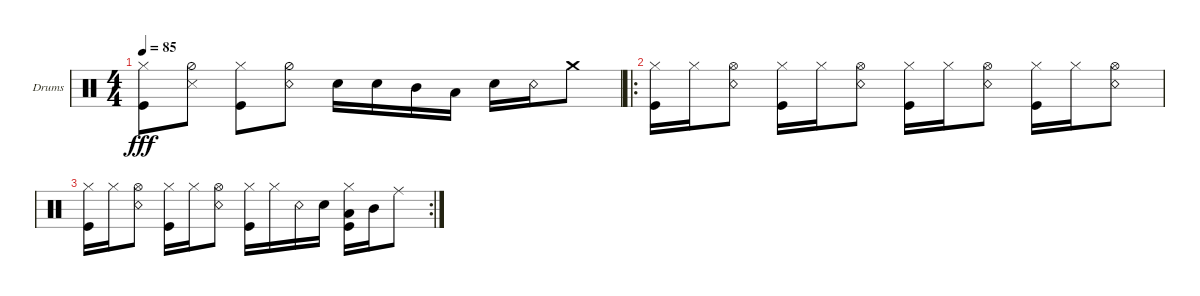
\defaultSystemsLayout 4
\bracketExtendMode groupsimilarinstruments
\firstSystemTrackNameOrientation horizontal
\otherSystemsTrackNameOrientation horizontal
\track ("Drumkit" "Drums") {instrument percussion}
\staff {score}
\articulation defaults
\ts (4 4)
\tempo 85
\clef neutral
\scale
0.333333
\ks c
("Hi-Hat (closed)" "Kick (hit)").8{dy fff} ("Hi-Hat (half)" "Snare (side stick) 3").8 ("Hi-Hat (closed)" "Kick (hit)").8 ("Hi-Hat (half)" "Snare (rim shot)").8 "Snare (hit) 2".16 "Snare (hit) 2".16 "Mid Tom (hit)".16 "Low Tom (hit)".16 "Snare (hit) 2".16 "Snare (rim shot)".16 "Crash medium (hit)".8 |
\ro
\scale
0.365591 ("Kick (hit)" "Hi-Hat (closed)").16 "Hi-Hat (closed)".16 ("Hi-Hat (open)" "Snare (rim shot)").8 ("Hi-Hat (closed)" "Kick (hit)").16 "Hi-Hat (closed)".16 ("Hi-Hat (open)" "Snare (rim shot)").8 ("Hi-Hat (closed)" "Kick (hit)").16 "Hi-Hat (closed)".16 ("Hi-Hat (open)" "Snare (rim shot)").8 ("Hi-Hat (closed)" "Kick (hit)").16 "Hi-Hat (closed)".16 ("Hi-Hat (open)" "Snare (rim shot)").8 |
\rc 2
\scale
0.333333 ("Kick (hit)" "Hi-Hat (closed)").16 "Hi-Hat (closed)".16 ("Hi-Hat (open)" "Snare (rim shot)").8 ("Hi-Hat (closed)" "Kick (hit)").16 "Hi-Hat (closed)".16 ("Hi-Hat (open)" "Snare (rim shot)").8 ("Hi-Hat (closed)" "Kick (hit)").16 "Hi-Hat (closed)".16 "Snare (rim shot)".16 "Snare (hit) 2".16 ("Hi-Hat (closed)" "Low Tom (hit)" "Kick (hit)").16 "Mid Tom (hit)".16 "Ride (middle)".8 |
\scale
0.301075 |
\scale
0.333333 |
\scale
0.333333 |
\scale
0.333333
